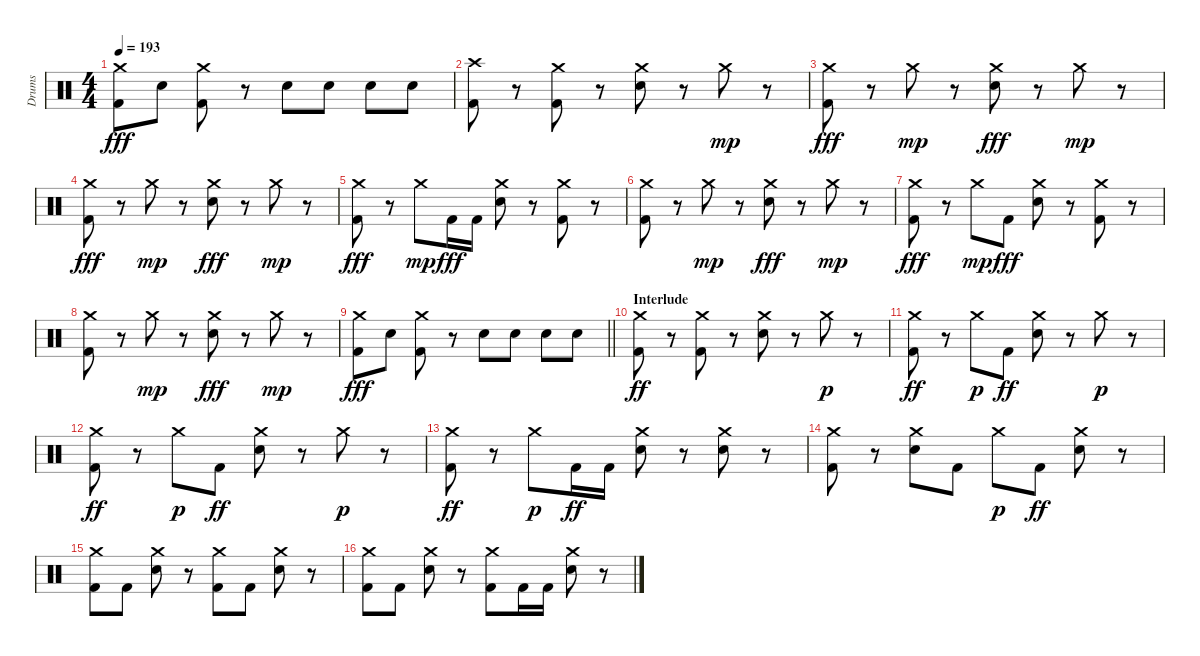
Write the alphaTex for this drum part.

\track ("Drums" "Drums") {instrument percussion}
\staff {score}
\articulation defaults
\ts (4 4)
\tempo 193
\clef neutral
\ks c
("Crash medium (hit)" "Kick (hit) 2").8{dy fff} "Snare (hit) 2".8 ("Crash medium (hit)" "Kick (hit) 2").8 r.8 "Snare (hit) 2".8 "Snare (hit) 2".8 "Snare (hit) 2".8 "Snare (hit) 2".8 |
("Crash high (hit)" "Kick (hit) 2").8 r.8 ("Crash medium (hit)" "Kick (hit) 2").8 r.8 ("Crash medium (hit)" "Snare (hit) 2").8 r.8 "Crash medium (hit)".8{dy mp} r.8 |
("Crash medium (hit)" "Kick (hit) 2").8{dy fff} r.8 "Crash medium (hit)".8{dy mp} r.8 ("Crash medium (hit)" "Snare (hit) 2").8{dy fff} r.8 "Crash medium (hit)".8{dy mp} r.8 |
("Crash medium (hit)" "Kick (hit) 2").8{dy fff} r.8 "Crash medium (hit)".8{dy mp} r.8 ("Crash medium (hit)" "Snare (hit) 2").8{dy fff} r.8 "Crash medium (hit)".8{dy mp} r.8 |
("Crash medium (hit)" "Kick (hit) 2").8{dy fff} r.8 "Crash medium (hit)".8{dy mp} "Kick (hit) 2".16{dy fff} "Kick (hit) 2".16 ("Crash medium (hit)" "Snare (hit) 2").8 r.8 ("Crash medium (hit)" "Kick (hit) 2").8 r.8 |
("Crash medium (hit)" "Kick (hit) 2").8 r.8 "Crash medium (hit)".8{dy mp} r.8 ("Crash medium (hit)" "Snare (hit) 2").8{dy fff} r.8 "Crash medium (hit)".8{dy mp} r.8 |
("Crash medium (hit)" "Kick (hit) 2").8{dy fff} r.8 "Crash medium (hit)".8{dy mp} "Kick (hit) 2".8{dy fff} ("Crash medium (hit)" "Snare (hit) 2").8 r.8 ("Crash medium (hit)" "Kick (hit) 2").8 r.8 |
("Crash medium (hit)" "Kick (hit) 2").8 r.8 "Crash medium (hit)".8{dy mp} r.8 ("Crash medium (hit)" "Snare (hit) 2").8{dy fff} r.8 "Crash medium (hit)".8{dy mp} r.8 |
\barLineRight lightlight
("Crash medium (hit)" "Kick (hit) 2").8{dy fff} "Snare (hit) 2".8 ("Crash medium (hit)" "Kick (hit) 2").8 r.8 "Snare (hit) 2".8 "Snare (hit) 2".8 "Snare (hit) 2".8 "Snare (hit) 2".8 |
\section ("" "Interlude")
("Crash medium (hit)" "Kick (hit) 2").8{dy ff} r.8 ("Crash medium (hit)" "Kick (hit) 2").8 r.8 ("Crash medium (hit)" "Snare (hit) 2").8 r.8 "Crash medium (hit)".8{dy p} r.8 |
("Crash medium (hit)" "Kick (hit) 2").8{dy ff} r.8 "Crash medium (hit)".8{dy p} "Kick (hit) 2".8{dy ff} ("Crash medium (hit)" "Snare (hit) 2").8 r.8 "Crash medium (hit)".8{dy p} r.8 |
("Crash medium (hit)" "Kick (hit) 2").8{dy ff} r.8 "Crash medium (hit)".8{dy p} "Kick (hit) 2".8{dy ff} ("Crash medium (hit)" "Snare (hit) 2").8 r.8 "Crash medium (hit)".8{dy p} r.8 |
("Crash medium (hit)" "Kick (hit) 2").8{dy ff} r.8 "Crash medium (hit)".8{dy p} "Kick (hit) 2".16{dy ff} "Kick (hit) 2".16 ("Crash medium (hit)" "Snare (hit) 2").8 r.8 ("Crash medium (hit)" "Snare (hit) 2").8 r.8 |
("Crash medium (hit)" "Kick (hit) 2").8 r.8 ("Crash medium (hit)" "Snare (hit) 2").8 "Kick (hit) 2".8 "Crash medium (hit)".8{dy p} "Kick (hit) 2".8{dy ff} ("Crash medium (hit)" "Snare (hit) 2").8 r.8 |
("Crash medium (hit)" "Kick (hit) 2").8 "Kick (hit) 2".8 ("Crash medium (hit)" "Snare (hit) 2").8 r.8 ("Crash medium (hit)" "Kick (hit) 2").8 "Kick (hit) 2".8 ("Crash medium (hit)" "Snare (hit) 2").8 r.8 |
("Crash medium (hit)" "Kick (hit) 2").8 "Kick (hit) 2".8 ("Crash medium (hit)" "Snare (hit) 2").8 r.8 ("Crash medium (hit)" "Kick (hit) 2").8 "Kick (hit) 2".16 "Kick (hit) 2".16 ("Crash medium (hit)" "Snare (hit) 2").8 r.8
